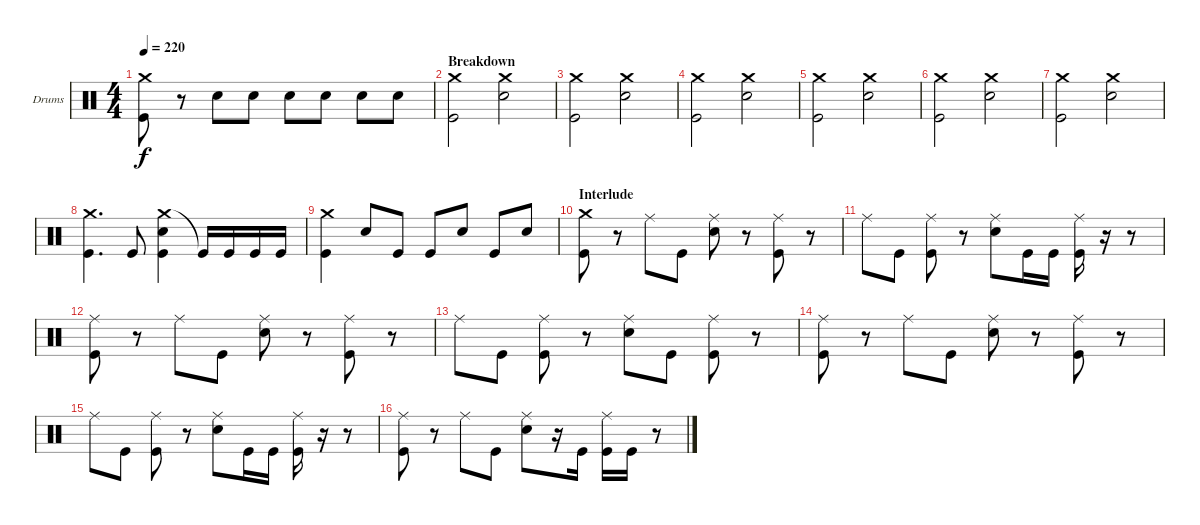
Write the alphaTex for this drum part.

\bracketExtendMode groupsimilarinstruments
\firstSystemTrackNameOrientation horizontal
\otherSystemsTrackNameOrientation horizontal
\track ("Drumkit" "Drums") {instrument percussion}
\staff {score}
\articulation defaults
\ts (4 4)
\tempo 220
\clef neutral
\ks c
("Crash medium (hit)" "Kick (hit)").8{dy f} r.8 "Snare (hit) 2".8 "Snare (hit) 2".8 "Snare (hit) 2".8 "Snare (hit) 2".8 "Snare (hit) 2".8 "Snare (hit) 2".8 |
\section ("" "Breakdown")
("Crash medium (hit)" "Kick (hit)").2 ("Crash medium (hit)" "Snare (hit) 2").2 |
("Crash medium (hit)" "Kick (hit)").2 ("Crash medium (hit)" "Snare (hit) 2").2 |
("Crash medium (hit)" "Kick (hit)").2 ("Crash medium (hit)" "Snare (hit) 2").2 |
("Crash medium (hit)" "Kick (hit)").2 ("Crash medium (hit)" "Snare (hit) 2").2 |
("Crash medium (hit)" "Kick (hit)").2 ("Crash medium (hit)" "Snare (hit) 2").2 |
("Crash medium (hit)" "Kick (hit)").2 ("Crash medium (hit)" "Snare (hit) 2").2 |
("Crash medium (hit)" "Kick (hit)").4{d} "Kick (hit)".8 ("Crash medium (hit)" "Snare (hit) 2" "Kick (hit)").4 "Kick (hit)"{t}.16 "Kick (hit)".16 "Kick (hit)".16 "Kick (hit)".16 |
("Crash medium (hit)" "Kick (hit)").4 "Snare (hit) 2".8 "Kick (hit)".8 "Kick (hit)".8 "Snare (hit) 2".8 "Kick (hit)".8 "Snare (hit) 2".8 |
\section ("" "Interlude")
("Crash medium (hit)" "Kick (hit)").8 r.8 "Ride (middle)".8 "Kick (hit)".8 ("Ride (middle)" "Snare (hit) 2").8 r.8 ("Ride (middle)" "Kick (hit)").8 r.8 |
"Ride (middle)".8 "Kick (hit)".8 ("Ride (middle)" "Kick (hit)").8 r.8 ("Ride (middle)" "Snare (hit) 2").8 "Kick (hit)".16 "Kick (hit)".16 ("Ride (middle)" "Kick (hit)").16 r.16 r.8 |
("Ride (middle)" "Kick (hit)").8 r.8 "Ride (middle)".8 "Kick (hit)".8 ("Ride (middle)" "Snare (hit) 2").8 r.8 ("Ride (middle)" "Kick (hit)").8 r.8 |
"Ride (middle)".8 "Kick (hit)".8 ("Ride (middle)" "Kick (hit)").8 r.8 ("Ride (middle)" "Snare (hit) 2").8 "Kick (hit)".8 ("Ride (middle)" "Kick (hit)").8 r.8 |
("Ride (middle)" "Kick (hit)").8 r.8 "Ride (middle)".8 "Kick (hit)".8 ("Ride (middle)" "Snare (hit) 2").8 r.8 ("Ride (middle)" "Kick (hit)").8 r.8 |
"Ride (middle)".8 "Kick (hit)".8 ("Ride (middle)" "Kick (hit)").8 r.8 ("Ride (middle)" "Snare (hit) 2").8 "Kick (hit)".16 "Kick (hit)".16 ("Ride (middle)" "Kick (hit)").16 r.16 r.8 |
("Ride (middle)" "Kick (hit)").8 r.8 "Ride (middle)".8 "Kick (hit)".8 ("Ride (middle)" "Snare (hit) 2").8 r.16 "Kick (hit)".16 ("Ride (middle)" "Kick (hit)").16 "Kick (hit)".16 r.8
